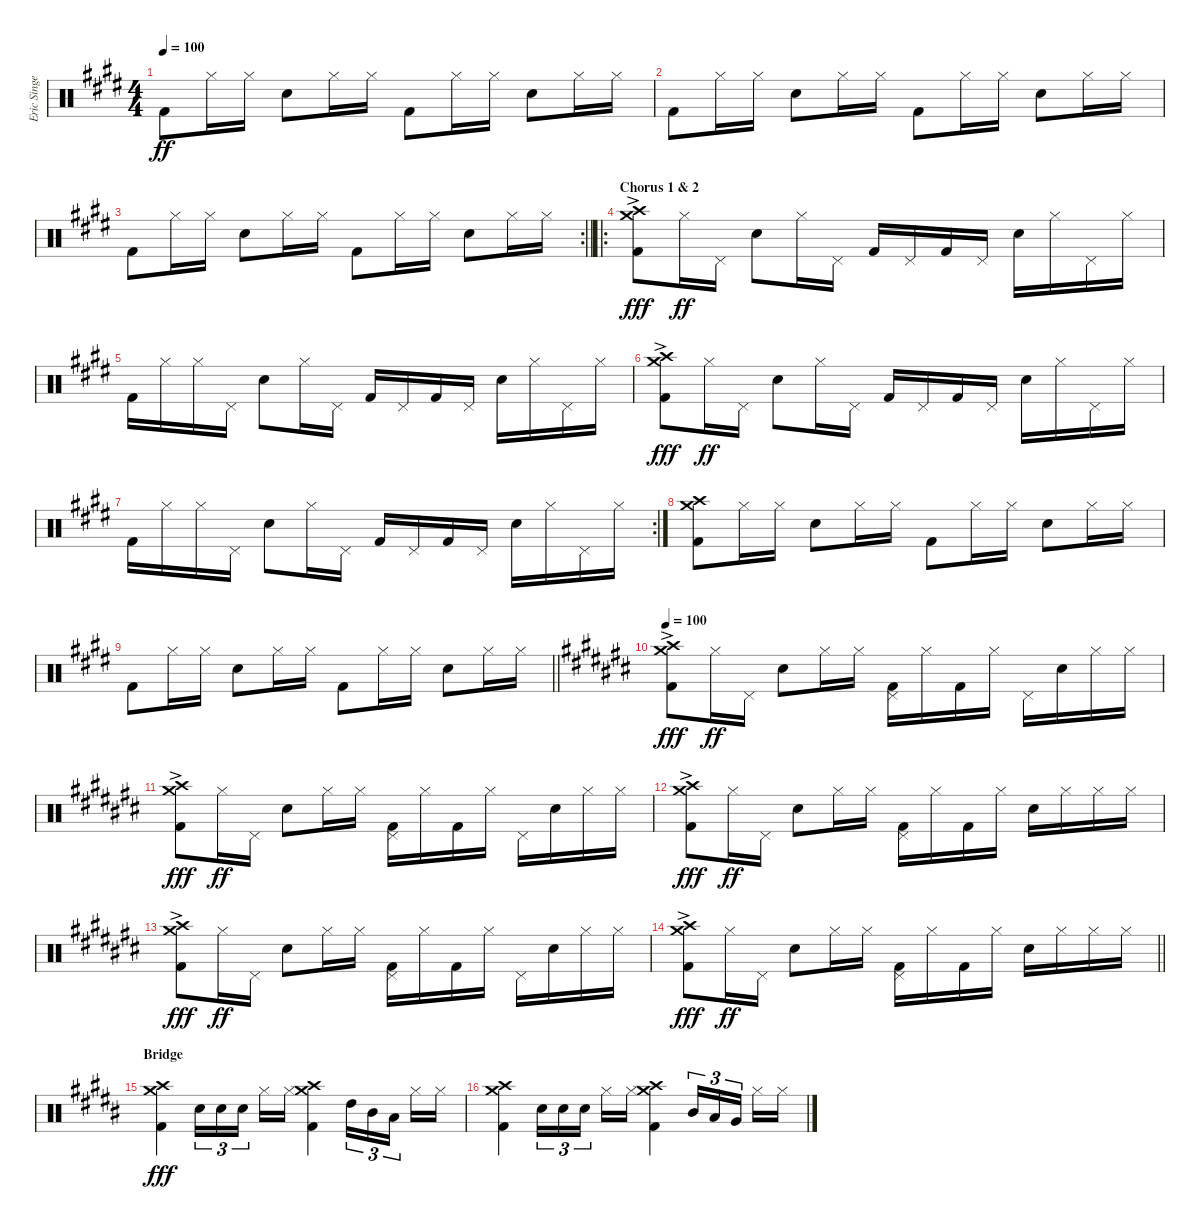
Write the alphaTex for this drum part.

\track ("Eric Singer" "Eric Singe") {instrument percussion}
\staff {score}
\articulation defaults
\ts (4 4)
\tempo 100
\clef neutral
\ks e "Kick (hit) 2".8{dy ff} "Hi-Hat (closed)".16 "Hi-Hat (closed)".16 "Snare (hit) 2".8 "Hi-Hat (closed)".16 "Hi-Hat (closed)".16 "Kick (hit) 2".8 "Hi-Hat (closed)".16 "Hi-Hat (closed)".16 "Snare (hit) 2".8 "Hi-Hat (closed)".16 "Hi-Hat (closed)".16
|
"Kick (hit) 2".8 "Hi-Hat (closed)".16 "Hi-Hat (closed)".16 "Snare (hit) 2".8 "Hi-Hat (closed)".16 "Hi-Hat (closed)".16 "Kick (hit) 2".8 "Hi-Hat (closed)".16 "Hi-Hat (closed)".16 "Snare (hit) 2".8 "Hi-Hat (closed)".16 "Hi-Hat (closed)".16 |
\rc 2
\barLineRight lightlight "Kick (hit) 2".8 "Hi-Hat (closed)".16 "Hi-Hat (closed)".16 "Snare (hit) 2".8 "Hi-Hat (closed)".16 "Hi-Hat (closed)".16 "Kick (hit) 2".8 "Hi-Hat (closed)".16 "Hi-Hat (closed)".16 "Snare (hit) 2".8 "Hi-Hat (closed)".16 "Hi-Hat (closed)".16
|
\ro
\section ("" "Chorus 1 & 2")
("Crash medium (hit)"{ac} "Crash high (hit)"{ac} "Kick (hit) 2"{ac}).8{dy fff} "Hi-Hat (closed)".16{dy ff} "Pedal Hi-Hat (hit)".16 "Snare (hit) 2".8 "Hi-Hat (closed)".16 "Pedal Hi-Hat (hit)".16 "Kick (hit) 2".16 "Pedal Hi-Hat (hit)".16 "Kick (hit) 2".16 "Pedal Hi-Hat (hit)".16 "Snare (hit) 2".16 "Hi-Hat (closed)".16 "Pedal Hi-Hat (hit)".16 "Hi-Hat (closed)".16 |
"Kick (hit) 2".16 "Hi-Hat (closed)".16 "Hi-Hat (closed)".16 "Pedal Hi-Hat (hit)".16 "Snare (hit) 2".8 "Hi-Hat (closed)".16 "Pedal Hi-Hat (hit)".16 "Kick (hit) 2".16 "Pedal Hi-Hat (hit)".16 "Kick (hit) 2".16 "Pedal Hi-Hat (hit)".16 "Snare (hit) 2".16 "Hi-Hat (closed)".16 "Pedal Hi-Hat (hit)".16 "Hi-Hat (closed)".16 |
("Crash medium (hit)"{ac} "Crash high (hit)"{ac} "Kick (hit) 2"{ac}).8{dy fff} "Hi-Hat (closed)".16{dy ff} "Pedal Hi-Hat (hit)".16 "Snare (hit) 2".8 "Hi-Hat (closed)".16 "Pedal Hi-Hat (hit)".16 "Kick (hit) 2".16 "Pedal Hi-Hat (hit)".16 "Kick (hit) 2".16 "Pedal Hi-Hat (hit)".16 "Snare (hit) 2".16 "Hi-Hat (closed)".16 "Pedal Hi-Hat (hit)".16 "Hi-Hat (closed)".16 |
\rc 2 "Kick (hit) 2".16 "Hi-Hat (closed)".16 "Hi-Hat (closed)".16 "Pedal Hi-Hat (hit)".16 "Snare (hit) 2".8 "Hi-Hat (closed)".16 "Pedal Hi-Hat (hit)".16 "Kick (hit) 2".16 "Pedal Hi-Hat (hit)".16 "Kick (hit) 2".16 "Pedal Hi-Hat (hit)".16 "Snare (hit) 2".16 "Hi-Hat (closed)".16 "Pedal Hi-Hat (hit)".16 "Hi-Hat (closed)".16
|
("Crash medium (hit)" "Crash high (hit)" "Kick (hit) 2").8 "Hi-Hat (closed)".16 "Hi-Hat (closed)".16 "Snare (hit) 2".8 "Hi-Hat (closed)".16 "Hi-Hat (closed)".16 "Kick (hit) 2".8 "Hi-Hat (closed)".16 "Hi-Hat (closed)".16 "Snare (hit) 2".8 "Hi-Hat (closed)".16 "Hi-Hat (closed)".16 |
\barLineRight lightlight "Kick (hit) 2".8 "Hi-Hat (closed)".16 "Hi-Hat (closed)".16 "Snare (hit) 2".8 "Hi-Hat (closed)".16 "Hi-Hat (closed)".16 "Kick (hit) 2".8 "Hi-Hat (closed)".16 "Hi-Hat (closed)".16 "Snare (hit) 2".8 "Hi-Hat (closed)".16 "Hi-Hat (closed)".16
|
\tempo 100
\ks c#
("Crash medium (hit)"{ac} "Crash high (hit)"{ac} "Kick (hit) 2"{ac}).8{dy fff} "Hi-Hat (closed)".16{dy ff} "Pedal Hi-Hat (hit)".16 "Snare (hit) 2".8 "Hi-Hat (closed)".16 "Hi-Hat (closed)".16 ("Pedal Hi-Hat (hit)" "Kick (hit) 2").16 "Hi-Hat (closed)".16 "Kick (hit) 2".16 "Hi-Hat (closed)".16 "Pedal Hi-Hat (hit)".16 "Snare (hit) 2".16 "Hi-Hat (closed)".16 "Hi-Hat (closed)".16 |
\ks a#minor
("Crash medium (hit)"{ac} "Crash high (hit)"{ac} "Kick (hit) 2"{ac}).8{dy fff} "Hi-Hat (closed)".16{dy ff} "Pedal Hi-Hat (hit)".16 "Snare (hit) 2".8 "Hi-Hat (closed)".16 "Hi-Hat (closed)".16 ("Pedal Hi-Hat (hit)" "Kick (hit) 2").16 "Hi-Hat (closed)".16 "Kick (hit) 2".16 "Hi-Hat (closed)".16 "Pedal Hi-Hat (hit)".16 "Snare (hit) 2".16 "Hi-Hat (closed)".16 "Hi-Hat (closed)".16 |
\ks c#
("Crash medium (hit)"{ac} "Crash high (hit)"{ac} "Kick (hit) 2"{ac}).8{dy fff} "Hi-Hat (closed)".16{dy ff} "Pedal Hi-Hat (hit)".16 "Snare (hit) 2".8 "Hi-Hat (closed)".16 "Hi-Hat (closed)".16 ("Pedal Hi-Hat (hit)" "Kick (hit) 2").16 "Hi-Hat (closed)".16 "Kick (hit) 2".16 "Hi-Hat (closed)".16 "Snare (hit) 2".16 "Hi-Hat (closed)".16 "Hi-Hat (closed)".16 "Hi-Hat (closed)".16 |
\ks a#minor
("Crash medium (hit)"{ac} "Crash high (hit)"{ac} "Kick (hit) 2"{ac}).8{dy fff} "Hi-Hat (closed)".16{dy ff} "Pedal Hi-Hat (hit)".16 "Snare (hit) 2".8 "Hi-Hat (closed)".16 "Hi-Hat (closed)".16 ("Pedal Hi-Hat (hit)" "Kick (hit) 2").16 "Hi-Hat (closed)".16 "Kick (hit) 2".16 "Hi-Hat (closed)".16 "Pedal Hi-Hat (hit)".16 "Snare (hit) 2".16 "Hi-Hat (closed)".16 "Hi-Hat (closed)".16 |
\barLineRight lightlight
\ks c#
("Crash medium (hit)"{ac} "Crash high (hit)"{ac} "Kick (hit) 2"{ac}).8{dy fff} "Hi-Hat (closed)".16{dy ff} "Pedal Hi-Hat (hit)".16 "Snare (hit) 2".8 "Hi-Hat (closed)".16 "Hi-Hat (closed)".16 ("Pedal Hi-Hat (hit)" "Kick (hit) 2").16 "Hi-Hat (closed)".16 "Kick (hit) 2".16 "Hi-Hat (closed)".16 "Snare (hit) 2".16 "Hi-Hat (closed)".16 "Hi-Hat (closed)".16 "Hi-Hat (closed)".16 |
\section ("" "Bridge")
\ks b
("Crash medium (hit)" "Crash high (hit)" "Kick (hit) 2").4{dy fff} "Snare (hit) 2".16{tu (3 2)} "Snare (hit) 2".16{tu (3 2)} "Snare (hit) 2".16{tu (3 2) beam splitsecondary} "Hi-Hat (closed)".16 "Hi-Hat (closed)".16 ("Crash medium (hit)" "Crash high (hit)" "Kick (hit) 2").4 "High Tom (hit)".16{tu (3 2)} "Mid Tom (hit)".16{tu (3 2)} "Low Tom (hit)".16{tu (3 2) beam splitsecondary} "Hi-Hat (closed)".16 "Hi-Hat (closed)".16 |
("Crash medium (hit)" "Crash high (hit)" "Kick (hit) 2").4 "Snare (hit) 2".16{tu (3 2)} "Snare (hit) 2".16{tu (3 2)} "Snare (hit) 2".16{tu (3 2) beam splitsecondary} "Hi-Hat (closed)".16 "Hi-Hat (closed)".16 ("Crash medium (hit)" "Crash high (hit)" "Kick (hit) 2").4 "Mid Tom (hit)".16{tu (3 2)} "Low Tom (hit)".16{tu (3 2)} "Very Low Tom (hit)".16{tu (3 2) beam splitsecondary} "Hi-Hat (closed)".16 "Hi-Hat (closed)".16
